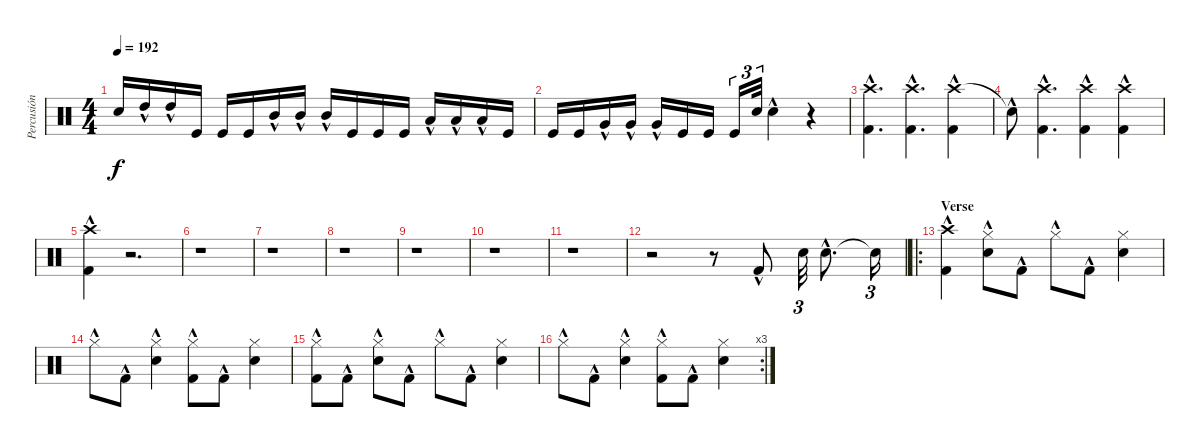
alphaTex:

\track ("Percusión" "Percusión") {instrument percussion}
\staff {score}
\articulation defaults
\ts (4 4)
\tempo 192
\clef neutral
\ks c "Electric Snare (hit)".16{dy f} "High Tom (hit)"{hac}.16 "High Tom (hit)"{hac}.16 "Kick (hit)".16 "Kick (hit)".16 "Kick (hit)".16 "Mid Tom (hit)"{hac}.16 "Mid Tom (hit)"{hac}.16 "Mid Tom (hit)"{hac}.16 "Kick (hit)".16 "Kick (hit)".16 "Kick (hit)".16 "Low Tom (hit)"{hac}.16 "Low Tom (hit)"{hac}.16 "Low Tom (hit)"{hac}.16 "Kick (hit)".16
|
"Kick (hit)".16 "Kick (hit)".16 "Very Low Tom (hit)"{hac}.16 "Very Low Tom (hit)"{hac}.16 "Very Low Tom (hit)"{hac}.16 "Kick (hit)".16 "Kick (hit)".16 "Kick (hit)".16{tu (3 2)} "Electric Snare (hit)".32{tu (3 2)} "Electric Snare (hit)"{hac}.4 r.4 |
("Crash high (hit)" "Kick (hit) 2"{hac}).4{d} ("Crash high (hit)" "Kick (hit) 2"{hac}).4{d} ("Crash high (hit)" "Kick (hit) 2"{hac}).4 |
"Snare (hit)"{hac t}.8 ("Crash high (hit)" "Kick (hit) 2"{hac}).4{d} ("Kick (hit) 2"{hac} "Crash high (hit)"{hac}).4 ("Crash high (hit)"{hac} "Kick (hit) 2"{hac}).4 |
("Kick (hit) 2"{hac} "Crash high (hit)"{hac}).4 r.2{d} |
r.1 |
r.1 |
r.1 |
r.1 |
r.1 |
r.1 |
r.2 r.8 "Kick (hit) 2"{hac}.8 "Electric Snare (hit)".32{tu (3 2)} "Electric Snare (hit)"{hac}.8{d} "Snare (hit)"{t}.16{tu (3 2)} |
\ro
\section ("" "Verse")
("Crash high (hit)"{hac} "Kick (hit) 2"{hac}).4 ("Hi-Hat (closed)"{hac} "Electric Snare (hit)"{hac}).8 "Kick (hit) 2"{hac}.8 "Hi-Hat (closed)"{hac}.8 "Kick (hit) 2"{hac}.8 ("Electric Snare (hit)" "Hi-Hat (closed)").4 |
"Hi-Hat (closed)"{hac}.8 "Kick (hit) 2"{hac}.8 ("Electric Snare (hit)"{hac} "Hi-Hat (closed)"{hac}).4 ("Kick (hit) 2"{hac} "Hi-Hat (closed)"{hac}).8 "Kick (hit) 2"{hac}.8 ("Electric Snare (hit)" "Hi-Hat (closed)").4 |
("Kick (hit) 2"{hac} "Hi-Hat (closed)"{hac}).8 "Kick (hit) 2"{hac}.8 ("Hi-Hat (closed)"{hac} "Electric Snare (hit)"{hac}).8 "Kick (hit) 2"{hac}.8 "Hi-Hat (closed)"{hac}.8 "Kick (hit) 2"{hac}.8 ("Hi-Hat (closed)" "Electric Snare (hit)").4 |
\rc 3 "Hi-Hat (closed)"{hac}.8 "Kick (hit) 2"{hac}.8
("Hi-Hat (closed)"{hac} "Electric Snare (hit)"{hac}).4 ("Kick (hit) 2"{hac} "Hi-Hat (closed)"{hac}).8 "Kick (hit) 2"{hac}.8 ("Electric Snare (hit)" "Hi-Hat (closed)").4
